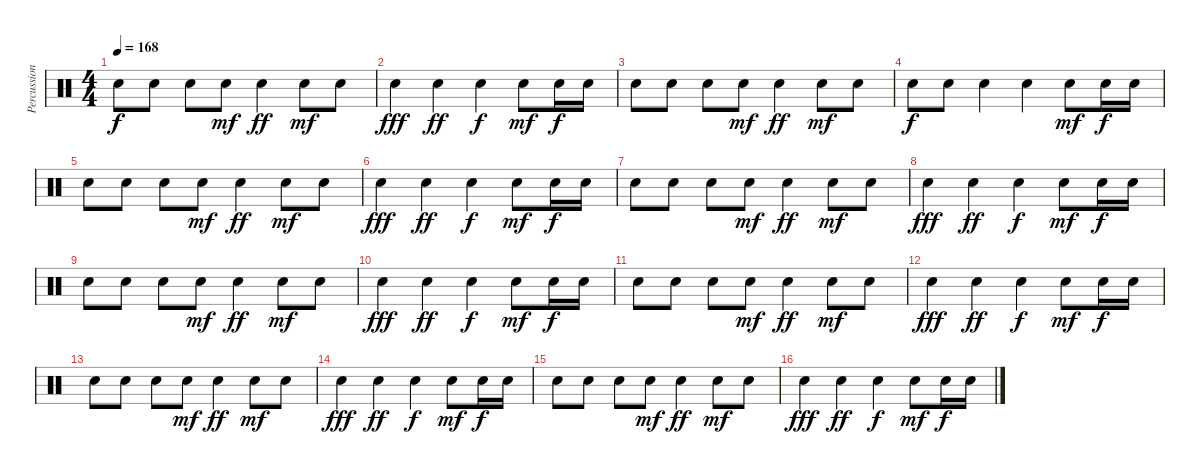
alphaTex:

\track ("Percussion" "Percussion") {instrument percussion}
\staff {score}
\articulation defaults
\ts (4 4)
\tempo 168
\clef neutral
\ks c "Snare (hit) 2".8{dy f} "Snare (hit) 2".8 "Snare (hit) 2".8 "Snare (hit) 2".8{dy mf} "Snare (hit) 2".4{dy ff} "Snare (hit) 2".8{dy mf} "Snare (hit) 2".8
|
"Snare (hit) 2".4{dy fff} "Snare (hit) 2".4{dy ff} "Snare (hit) 2".4{dy f} "Snare (hit) 2".8{dy mf} "Snare (hit) 2".16{dy f} "Snare (hit) 2".16 |
"Snare (hit) 2".8 "Snare (hit) 2".8 "Snare (hit) 2".8 "Snare (hit) 2".8{dy mf} "Snare (hit) 2".4{dy ff} "Snare (hit) 2".8{dy mf} "Snare (hit) 2".8 |
"Snare (hit) 2".8{dy f} "Snare (hit) 2".8 "Snare (hit) 2".4 "Snare (hit) 2".4 "Snare (hit) 2".8{dy mf} "Snare (hit) 2".16{dy f} "Snare (hit) 2".16 |
"Snare (hit) 2".8 "Snare (hit) 2".8 "Snare (hit) 2".8 "Snare (hit) 2".8{dy mf} "Snare (hit) 2".4{dy ff} "Snare (hit) 2".8{dy mf} "Snare (hit) 2".8 |
"Snare (hit) 2".4{dy fff} "Snare (hit) 2".4{dy ff} "Snare (hit) 2".4{dy f} "Snare (hit) 2".8{dy mf} "Snare (hit) 2".16{dy f} "Snare (hit) 2".16 |
"Snare (hit) 2".8 "Snare (hit) 2".8 "Snare (hit) 2".8 "Snare (hit) 2".8{dy mf} "Snare (hit) 2".4{dy ff} "Snare (hit) 2".8{dy mf} "Snare (hit) 2".8 |
"Snare (hit) 2".4{dy fff} "Snare (hit) 2".4{dy ff} "Snare (hit) 2".4{dy f} "Snare (hit) 2".8{dy mf} "Snare (hit) 2".16{dy f} "Snare (hit) 2".16 |
"Snare (hit) 2".8 "Snare (hit) 2".8 "Snare (hit) 2".8 "Snare (hit) 2".8{dy mf} "Snare (hit) 2".4{dy ff} "Snare (hit) 2".8{dy mf} "Snare (hit) 2".8 |
"Snare (hit) 2".4{dy fff} "Snare (hit) 2".4{dy ff} "Snare (hit) 2".4{dy f} "Snare (hit) 2".8{dy mf} "Snare (hit) 2".16{dy f} "Snare (hit) 2".16 |
"Snare (hit) 2".8 "Snare (hit) 2".8 "Snare (hit) 2".8 "Snare (hit) 2".8{dy mf} "Snare (hit) 2".4{dy ff} "Snare (hit) 2".8{dy mf} "Snare (hit) 2".8 |
"Snare (hit) 2".4{dy fff} "Snare (hit) 2".4{dy ff} "Snare (hit) 2".4{dy f} "Snare (hit) 2".8{dy mf} "Snare (hit) 2".16{dy f} "Snare (hit) 2".16 |
"Snare (hit) 2".8 "Snare (hit) 2".8 "Snare (hit) 2".8 "Snare (hit) 2".8{dy mf} "Snare (hit) 2".4{dy ff} "Snare (hit) 2".8{dy mf} "Snare (hit) 2".8 |
"Snare (hit) 2".4{dy fff} "Snare (hit) 2".4{dy ff} "Snare (hit) 2".4{dy f} "Snare (hit) 2".8{dy mf} "Snare (hit) 2".16{dy f} "Snare (hit) 2".16 |
"Snare (hit) 2".8 "Snare (hit) 2".8 "Snare (hit) 2".8 "Snare (hit) 2".8{dy mf} "Snare (hit) 2".4{dy ff} "Snare (hit) 2".8{dy mf} "Snare (hit) 2".8 |
"Snare (hit) 2".4{dy fff} "Snare (hit) 2".4{dy ff} "Snare (hit) 2".4{dy f} "Snare (hit) 2".8{dy mf} "Snare (hit) 2".16{dy f} "Snare (hit) 2".16
